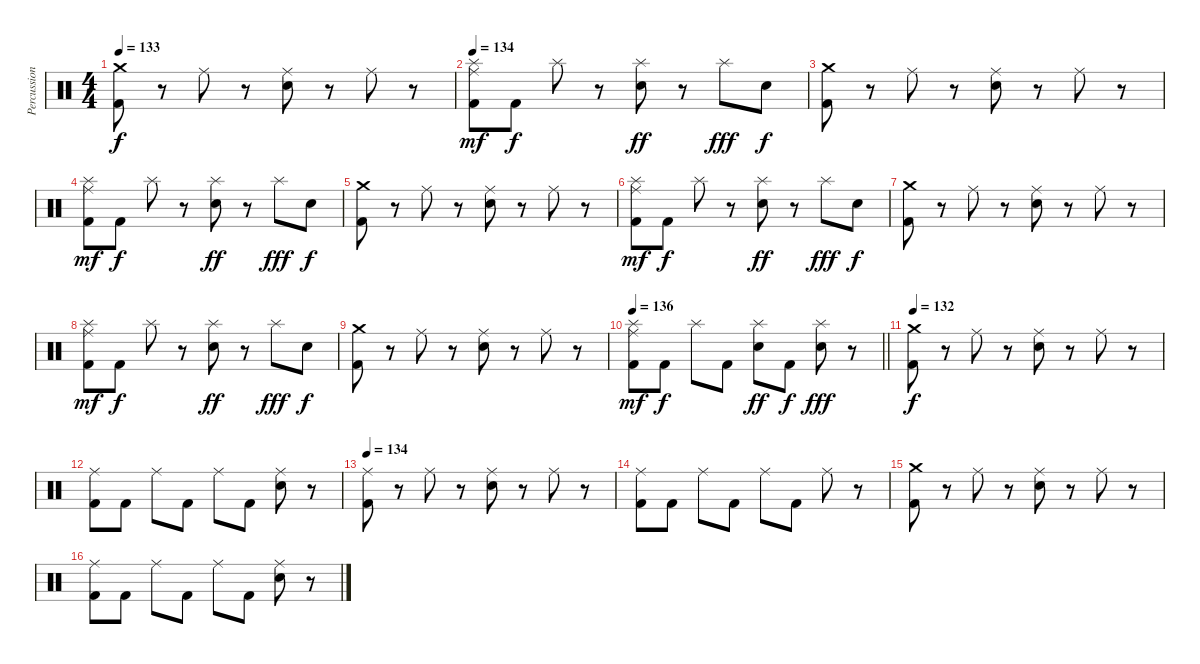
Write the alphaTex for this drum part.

\track ("Percussion" "Percussion") {instrument percussion}
\staff {score}
\articulation defaults
\ts (4 4)
\tempo 133
\clef neutral
\ks c
("Crash medium (hit)" "Kick (hit) 2").8{dy f} r.8 "Ride (middle)".8 r.8 ("Ride (middle)" "Electric Snare (hit)").8 r.8 "Ride (middle)".8 r.8 |
\tempo 134
("Ride (middle)" "Splash (hit)" "Kick (hit) 2").8{dy mf} "Kick (hit) 2".8{dy f} "Splash (hit)".8 r.8 ("Splash (hit)" "Electric Snare (hit)").8{dy ff} r.8 "Splash (hit)".8{dy fff} "Electric Snare (hit)".8{dy f} |
("Crash medium (hit)" "Kick (hit) 2").8 r.8 "Ride (middle)".8 r.8 ("Ride (middle)" "Electric Snare (hit)").8 r.8 "Ride (middle)".8 r.8 |
("Ride (middle)" "Splash (hit)" "Kick (hit) 2").8{dy mf} "Kick (hit) 2".8{dy f} "Splash (hit)".8 r.8 ("Splash (hit)" "Electric Snare (hit)").8{dy ff} r.8 "Splash (hit)".8{dy fff} "Electric Snare (hit)".8{dy f} |
("Crash medium (hit)" "Kick (hit) 2").8 r.8 "Ride (middle)".8 r.8 ("Ride (middle)" "Electric Snare (hit)").8 r.8 "Ride (middle)".8 r.8 |
("Ride (middle)" "Splash (hit)" "Kick (hit) 2").8{dy mf} "Kick (hit) 2".8{dy f} "Splash (hit)".8 r.8 ("Splash (hit)" "Electric Snare (hit)").8{dy ff} r.8 "Splash (hit)".8{dy fff} "Electric Snare (hit)".8{dy f} |
("Crash medium (hit)" "Kick (hit) 2").8 r.8 "Ride (middle)".8 r.8 ("Ride (middle)" "Electric Snare (hit)").8 r.8 "Ride (middle)".8 r.8 |
("Ride (middle)" "Splash (hit)" "Kick (hit) 2").8{dy mf} "Kick (hit) 2".8{dy f} "Splash (hit)".8 r.8 ("Splash (hit)" "Electric Snare (hit)").8{dy ff} r.8 "Splash (hit)".8{dy fff} "Electric Snare (hit)".8{dy f} |
("Crash medium (hit)" "Kick (hit) 2").8 r.8 "Ride (middle)".8 r.8 ("Ride (middle)" "Electric Snare (hit)").8 r.8 "Ride (middle)".8 r.8 |
\tempo 136
\barLineRight lightlight
("Ride (middle)" "Splash (hit)" "Kick (hit) 2").8{dy mf} "Kick (hit) 2".8{dy f} "Splash (hit)".8 "Kick (hit) 2".8 ("Splash (hit)" "Electric Snare (hit)").8{dy ff} "Kick (hit) 2".8{dy f} ("Splash (hit)" "Electric Snare (hit)").8{dy fff} r.8 |
\section ("" "")
\tempo 132
("Crash medium (hit)" "Kick (hit) 2").8{dy f} r.8 "Ride (middle)".8 r.8 ("Ride (middle)" "Electric Snare (hit)").8 r.8 "Ride (middle)".8 r.8 |
("Ride (middle)" "Kick (hit) 2").8 "Kick (hit) 2".8 "Ride (middle)".8 "Kick (hit) 2".8 "Ride (middle)".8 "Kick (hit) 2".8 ("Ride (middle)" "Electric Snare (hit)").8 r.8 |
\tempo 134
("Ride (middle)" "Kick (hit) 2").8 r.8 "Ride (middle)".8 r.8 ("Ride (middle)" "Electric Snare (hit)").8 r.8 "Ride (middle)".8 r.8 |
("Ride (middle)" "Kick (hit) 2").8 "Kick (hit) 2".8 "Ride (middle)".8 "Kick (hit) 2".8 "Ride (middle)".8 "Kick (hit) 2".8 "Ride (middle)".8 r.8 |
("Crash medium (hit)" "Kick (hit) 2").8 r.8 "Ride (middle)".8 r.8 ("Ride (middle)" "Electric Snare (hit)").8 r.8 "Ride (middle)".8 r.8 |
("Ride (middle)" "Kick (hit) 2").8 "Kick (hit) 2".8 "Ride (middle)".8 "Kick (hit) 2".8 "Ride (middle)".8 "Kick (hit) 2".8 ("Ride (middle)" "Electric Snare (hit)").8 r.8
